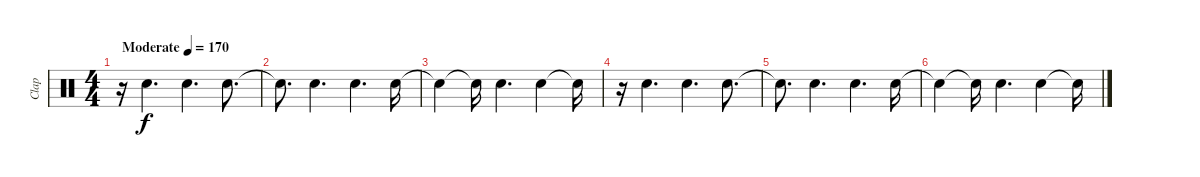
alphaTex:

\track ("Clap" "Clap") {instrument percussion}
\staff {score}
\articulation defaults
\ts (4 4)
\tempo (170 "Moderate")
\clef neutral
\ks c
r.16{dy f} "Hand Clap (hit)".4{d} "Hand Clap (hit)".4{d} "Hand Clap (hit)".8{d} |
"Hand Clap (hit)"{t}.8{d} "Hand Clap (hit)".4{d} "Hand Clap (hit)".4{d} "Hand Clap (hit)".16 |
"Hand Clap (hit)"{t}.4 "Hand Clap (hit)"{t}.16 "Hand Clap (hit)".4{d} "Hand Clap (hit)".4 "Hand Clap (hit)"{t}.16 |
r.16 "Hand Clap (hit)".4{d} "Hand Clap (hit)".4{d} "Hand Clap (hit)".8{d} |
"Hand Clap (hit)"{t}.8{d} "Hand Clap (hit)".4{d} "Hand Clap (hit)".4{d} "Hand Clap (hit)".16 |
"Hand Clap (hit)"{t}.4 "Hand Clap (hit)"{t}.16 "Hand Clap (hit)".4{d} "Hand Clap (hit)".4 "Hand Clap (hit)"{t}.16
